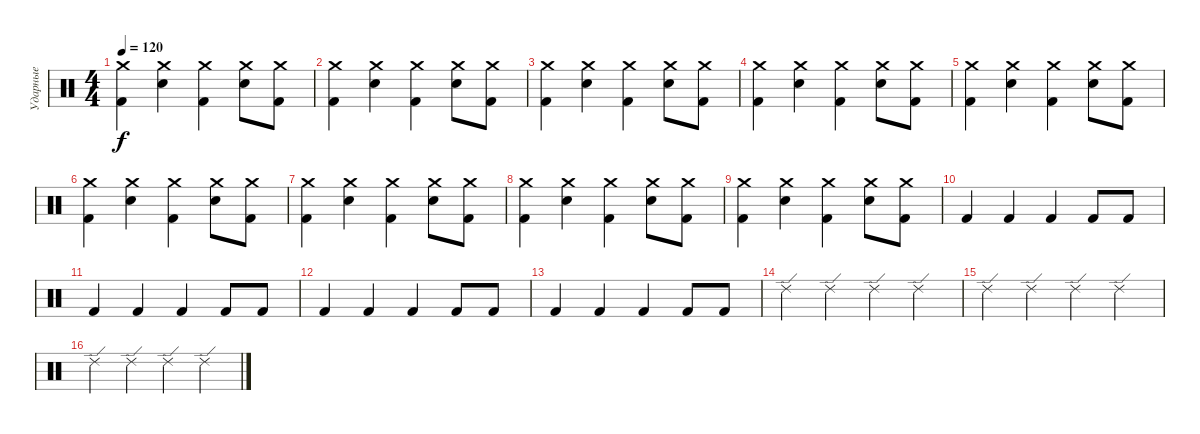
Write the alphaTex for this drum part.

\track ("Ударные" "Ударные") {instrument percussion}
\staff {score}
\articulation defaults
\ts (4 4)
\tempo 120
\clef neutral
\ks c
("Crash medium (hit)" "Kick (hit) 2").4{dy f} ("Crash medium (hit)" "Electric Snare (hit)").4 ("Crash medium (hit)" "Kick (hit) 2").4 ("Crash medium (hit)" "Electric Snare (hit)").8 ("Crash medium (hit)" "Kick (hit) 2").8 |
("Crash medium (hit)" "Kick (hit) 2").4 ("Crash medium (hit)" "Electric Snare (hit)").4 ("Crash medium (hit)" "Kick (hit) 2").4 ("Crash medium (hit)" "Electric Snare (hit)").8 ("Crash medium (hit)" "Kick (hit) 2").8 |
("Crash medium (hit)" "Kick (hit) 2").4 ("Crash medium (hit)" "Electric Snare (hit)").4 ("Crash medium (hit)" "Kick (hit) 2").4 ("Crash medium (hit)" "Electric Snare (hit)").8 ("Crash medium (hit)" "Kick (hit) 2").8 |
("Crash medium (hit)" "Kick (hit) 2").4 ("Crash medium (hit)" "Electric Snare (hit)").4 ("Crash medium (hit)" "Kick (hit) 2").4 ("Crash medium (hit)" "Electric Snare (hit)").8 ("Crash medium (hit)" "Kick (hit) 2").8 |
("Crash medium (hit)" "Kick (hit) 2").4 ("Crash medium (hit)" "Electric Snare (hit)").4 ("Crash medium (hit)" "Kick (hit) 2").4 ("Crash medium (hit)" "Electric Snare (hit)").8 ("Crash medium (hit)" "Kick (hit) 2").8 |
("Crash medium (hit)" "Kick (hit) 2").4 ("Crash medium (hit)" "Electric Snare (hit)").4 ("Crash medium (hit)" "Kick (hit) 2").4 ("Crash medium (hit)" "Electric Snare (hit)").8 ("Crash medium (hit)" "Kick (hit) 2").8 |
("Crash medium (hit)" "Kick (hit) 2").4 ("Crash medium (hit)" "Electric Snare (hit)").4 ("Crash medium (hit)" "Kick (hit) 2").4 ("Crash medium (hit)" "Electric Snare (hit)").8 ("Crash medium (hit)" "Kick (hit) 2").8 |
("Crash medium (hit)" "Kick (hit) 2").4 ("Crash medium (hit)" "Electric Snare (hit)").4 ("Crash medium (hit)" "Kick (hit) 2").4 ("Crash medium (hit)" "Electric Snare (hit)").8 ("Crash medium (hit)" "Kick (hit) 2").8 |
("Crash medium (hit)" "Kick (hit) 2").4 ("Crash medium (hit)" "Electric Snare (hit)").4 ("Crash medium (hit)" "Kick (hit) 2").4 ("Crash medium (hit)" "Electric Snare (hit)").8 ("Crash medium (hit)" "Kick (hit) 2").8 |
"Kick (hit) 2".4 "Kick (hit) 2".4 "Kick (hit) 2".4 "Kick (hit) 2".8 "Kick (hit) 2".8 |
"Kick (hit) 2".4 "Kick (hit) 2".4 "Kick (hit) 2".4 "Kick (hit) 2".8 "Kick (hit) 2".8 |
"Kick (hit) 2".4 "Kick (hit) 2".4 "Kick (hit) 2".4 "Kick (hit) 2".8 "Kick (hit) 2".8 |
"Kick (hit) 2".4 "Kick (hit) 2".4 "Kick (hit) 2".4 "Kick (hit) 2".8 "Kick (hit) 2".8 |
"Ride (edge) 2".4 "Ride (edge) 2".4 "Ride (edge) 2".4 "Ride (edge) 2".4 |
"Ride (edge) 2".4 "Ride (edge) 2".4 "Ride (edge) 2".4 "Ride (edge) 2".4 |
"Ride (edge) 2".4 "Ride (edge) 2".4 "Ride (edge) 2".4 "Ride (edge) 2".4
